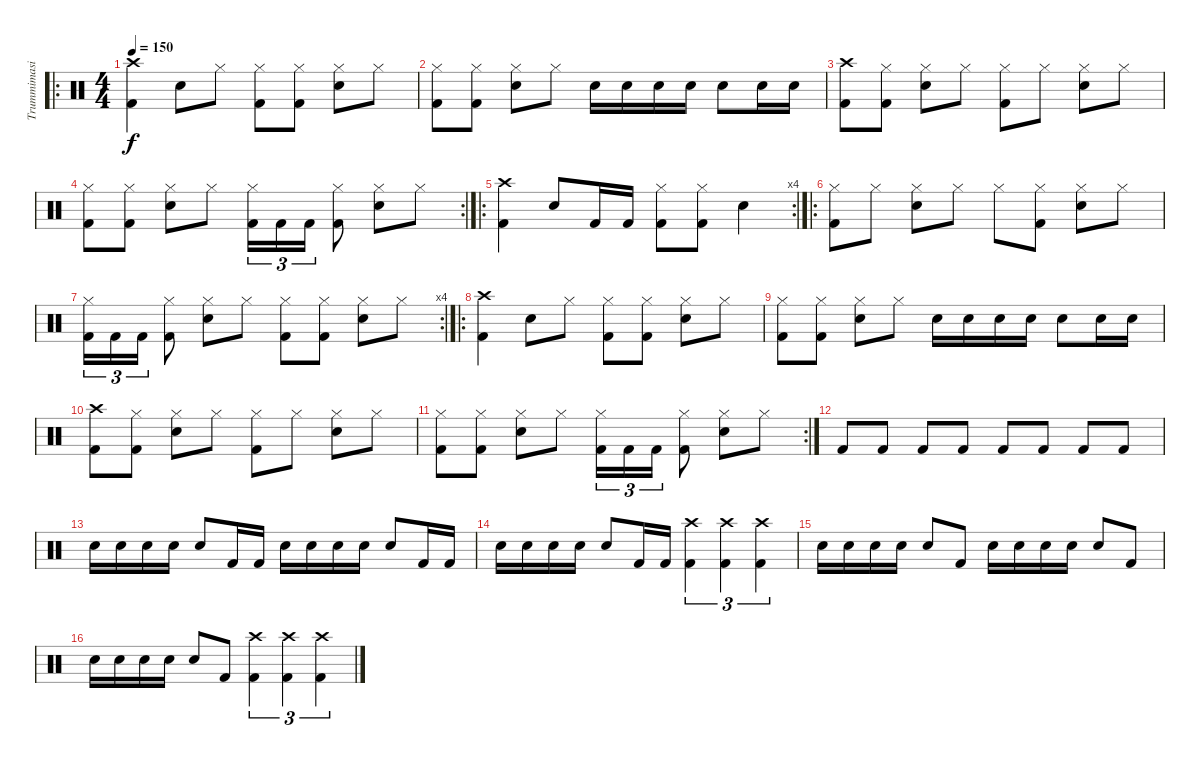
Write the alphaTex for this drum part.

\track ("Trummimasin" "Trummimasi") {instrument percussion}
\staff {score}
\articulation defaults
\ro
\ts (4 4)
\tempo 150
\clef neutral
\ks c
("Crash high (hit)" "Kick (hit) 2").4{dy f} "Snare (hit) 2".8 "Hi-Hat (closed)".8 ("Hi-Hat (closed)" "Kick (hit) 2").8 ("Hi-Hat (closed)" "Kick (hit) 2").8 ("Hi-Hat (closed)" "Snare (hit) 2").8 "Hi-Hat (closed)".8 |
("Hi-Hat (closed)" "Kick (hit) 2").8 ("Hi-Hat (closed)" "Kick (hit) 2").8 ("Hi-Hat (closed)" "Snare (hit) 2").8 "Hi-Hat (closed)".8 "Snare (hit) 2".16 "Snare (hit) 2".16 "Snare (hit) 2".16 "Snare (hit) 2".16 "Snare (hit) 2".8 "Snare (hit) 2".16 "Snare (hit) 2".16 |
("Crash high (hit)" "Kick (hit) 2").8 ("Hi-Hat (closed)" "Kick (hit) 2").8 ("Hi-Hat (closed)" "Snare (hit) 2").8 "Hi-Hat (closed)".8 ("Hi-Hat (closed)" "Kick (hit) 2").8 "Hi-Hat (closed)".8 ("Hi-Hat (closed)" "Snare (hit) 2").8 "Hi-Hat (closed)".8 |
\rc 2
("Hi-Hat (closed)" "Kick (hit) 2").8 ("Hi-Hat (closed)" "Kick (hit) 2").8 ("Hi-Hat (closed)" "Snare (hit) 2").8 "Hi-Hat (closed)".8 ("Hi-Hat (closed)" "Kick (hit) 2").16{tu (3 2)} "Kick (hit) 2".16{tu (3 2)} "Kick (hit) 2".16{tu (3 2)} ("Hi-Hat (closed)" "Kick (hit) 2").8 ("Hi-Hat (closed)" "Snare (hit) 2").8 "Hi-Hat (closed)".8 |
\ro
\rc 4
("Crash high (hit)" "Kick (hit) 2").4 "Snare (hit) 2".8 "Kick (hit) 2".16 "Kick (hit) 2".16 ("Hi-Hat (closed)" "Kick (hit) 2").8 ("Hi-Hat (closed)" "Kick (hit) 2").8 "Snare (hit) 2".4 |
\ro
("Hi-Hat (closed)" "Kick (hit) 2").8 "Hi-Hat (closed)".8 ("Hi-Hat (closed)" "Snare (hit) 2").8 "Hi-Hat (closed)".8 "Hi-Hat (closed)".8 ("Hi-Hat (closed)" "Kick (hit) 2").8 ("Hi-Hat (closed)" "Snare (hit) 2").8 "Hi-Hat (closed)".8 |
\rc 4
("Hi-Hat (closed)" "Kick (hit) 2").16{tu (3 2)} "Kick (hit) 2".16{tu (3 2)} "Kick (hit) 2".16{tu (3 2)} ("Hi-Hat (closed)" "Kick (hit) 2").8 ("Hi-Hat (closed)" "Snare (hit) 2").8 "Hi-Hat (closed)".8 ("Hi-Hat (closed)" "Kick (hit) 2").8 ("Hi-Hat (closed)" "Kick (hit) 2").8 ("Hi-Hat (closed)" "Snare (hit) 2").8 "Hi-Hat (closed)".8 |
\ro
("Crash high (hit)" "Kick (hit) 2").4 "Snare (hit) 2".8 "Hi-Hat (closed)".8 ("Hi-Hat (closed)" "Kick (hit) 2").8 ("Hi-Hat (closed)" "Kick (hit) 2").8 ("Hi-Hat (closed)" "Snare (hit) 2").8 "Hi-Hat (closed)".8 |
("Hi-Hat (closed)" "Kick (hit) 2").8 ("Hi-Hat (closed)" "Kick (hit) 2").8 ("Hi-Hat (closed)" "Snare (hit) 2").8 "Hi-Hat (closed)".8 "Snare (hit) 2".16 "Snare (hit) 2".16 "Snare (hit) 2".16 "Snare (hit) 2".16 "Snare (hit) 2".8 "Snare (hit) 2".16 "Snare (hit) 2".16 |
("Crash high (hit)" "Kick (hit) 2").8 ("Hi-Hat (closed)" "Kick (hit) 2").8 ("Hi-Hat (closed)" "Snare (hit) 2").8 "Hi-Hat (closed)".8 ("Hi-Hat (closed)" "Kick (hit) 2").8 "Hi-Hat (closed)".8 ("Hi-Hat (closed)" "Snare (hit) 2").8 "Hi-Hat (closed)".8 |
\rc 2
("Hi-Hat (closed)" "Kick (hit) 2").8 ("Hi-Hat (closed)" "Kick (hit) 2").8 ("Hi-Hat (closed)" "Snare (hit) 2").8 "Hi-Hat (closed)".8 ("Hi-Hat (closed)" "Kick (hit) 2").16{tu (3 2)} "Kick (hit) 2".16{tu (3 2)} "Kick (hit) 2".16{tu (3 2)} ("Hi-Hat (closed)" "Kick (hit) 2").8 ("Hi-Hat (closed)" "Snare (hit) 2").8 "Hi-Hat (closed)".8 |
"Kick (hit) 2".8{volume 16} "Kick (hit) 2".8 "Kick (hit) 2".8 "Kick (hit) 2".8 "Kick (hit) 2".8 "Kick (hit) 2".8 "Kick (hit) 2".8 "Kick (hit) 2".8 |
"Snare (hit) 2".16 "Snare (hit) 2".16 "Snare (hit) 2".16 "Snare (hit) 2".16 "Snare (hit) 2".8 "Kick (hit) 2".16 "Kick (hit) 2".16 "Snare (hit) 2".16 "Snare (hit) 2".16 "Snare (hit) 2".16 "Snare (hit) 2".16 "Snare (hit) 2".8 "Kick (hit) 2".16 "Kick (hit) 2".16 |
"Snare (hit) 2".16 "Snare (hit) 2".16 "Snare (hit) 2".16 "Snare (hit) 2".16 "Snare (hit) 2".8 "Kick (hit) 2".16 "Kick (hit) 2".16 ("Crash high (hit)" "Kick (hit) 2").4{tu (3 2)} ("Crash high (hit)" "Kick (hit) 2").4{tu (3 2)} ("Crash high (hit)" "Kick (hit) 2").4{tu (3 2)} |
"Snare (hit) 2".16 "Snare (hit) 2".16 "Snare (hit) 2".16 "Snare (hit) 2".16 "Snare (hit) 2".8 "Kick (hit) 2".8 "Snare (hit) 2".16 "Snare (hit) 2".16 "Snare (hit) 2".16 "Snare (hit) 2".16 "Snare (hit) 2".8 "Kick (hit) 2".8 |
"Snare (hit) 2".16 "Snare (hit) 2".16 "Snare (hit) 2".16 "Snare (hit) 2".16 "Snare (hit) 2".8 "Kick (hit) 2".8 ("Crash high (hit)" "Kick (hit) 2").4{tu (3 2)} ("Crash high (hit)" "Kick (hit) 2").4{tu (3 2)} ("Crash high (hit)" "Kick (hit) 2").4{tu (3 2)}
